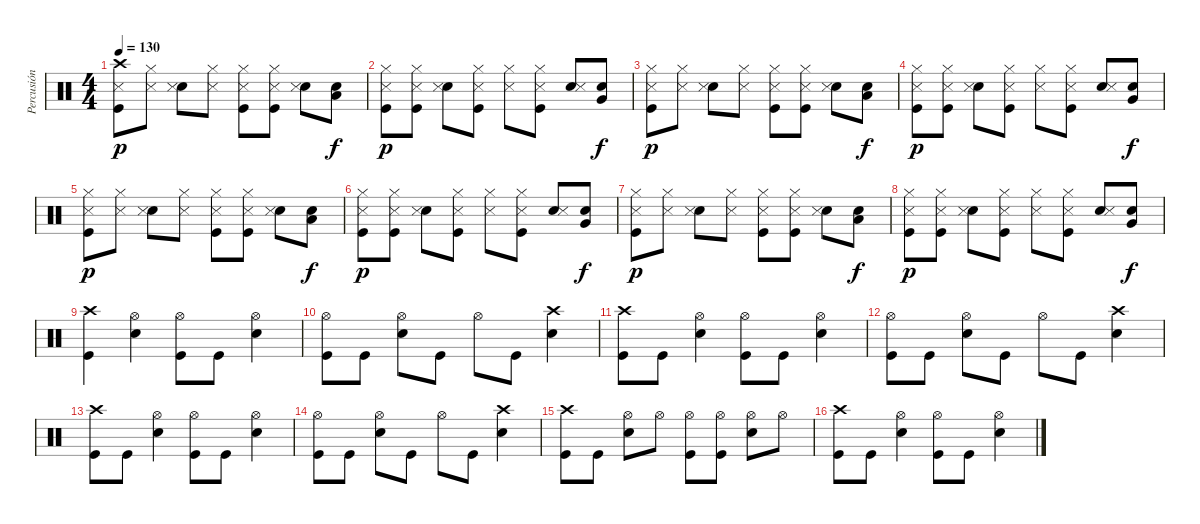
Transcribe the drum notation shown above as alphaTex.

\track ("Percusión" "Percusión") {instrument percussion}
\staff {score}
\articulation defaults
\ts (4 4)
\tempo 130
\clef neutral
\ks c
("Kick (hit)" "Snare (side stick) 3" "Crash high (hit)").8{dy p} ("Snare (side stick) 3" "Hi-Hat (closed)").8 ("Snare (hit) 2" "Snare (side stick) 3").8 ("Snare (side stick) 3" "Hi-Hat (closed)").8 ("Kick (hit)" "Snare (side stick) 3" "Hi-Hat (closed)").8 ("Kick (hit)" "Snare (side stick) 3" "Hi-Hat (closed)").8 ("Snare (hit) 2" "Snare (side stick) 3").8 ("Snare (hit) 2" "Low Tom (hit)").8{dy f} |
("Kick (hit)" "Snare (side stick) 3" "Hi-Hat (closed)").8{dy p} ("Kick (hit)" "Snare (side stick) 3" "Hi-Hat (closed)").8 ("Snare (hit) 2" "Snare (side stick) 3").8 ("Kick (hit)" "Snare (side stick) 3" "Hi-Hat (closed)").8 ("Snare (side stick) 3" "Hi-Hat (closed)").8 ("Kick (hit)" "Snare (side stick) 3" "Hi-Hat (closed)").8 ("Snare (hit) 2" "Snare (side stick) 3").8 ("Snare (hit) 2" "Very Low Tom (hit)").8{dy f} |
("Kick (hit)" "Snare (side stick) 3" "Hi-Hat (closed)").8{dy p} ("Snare (side stick) 3" "Hi-Hat (closed)").8 ("Snare (hit) 2" "Snare (side stick) 3").8 ("Snare (side stick) 3" "Hi-Hat (closed)").8 ("Kick (hit)" "Snare (side stick) 3" "Hi-Hat (closed)").8 ("Kick (hit)" "Snare (side stick) 3" "Hi-Hat (closed)").8 ("Snare (hit) 2" "Snare (side stick) 3").8 ("Snare (hit) 2" "Low Tom (hit)").8{dy f} |
("Kick (hit)" "Snare (side stick) 3" "Hi-Hat (closed)").8{dy p} ("Kick (hit)" "Snare (side stick) 3" "Hi-Hat (closed)").8 ("Snare (hit) 2" "Snare (side stick) 3").8 ("Kick (hit)" "Snare (side stick) 3" "Hi-Hat (closed)").8 ("Snare (side stick) 3" "Hi-Hat (closed)").8 ("Kick (hit)" "Snare (side stick) 3" "Hi-Hat (closed)").8 ("Snare (hit) 2" "Snare (side stick) 3").8 ("Snare (hit) 2" "Very Low Tom (hit)").8{dy f} |
("Kick (hit)" "Snare (side stick) 3" "Hi-Hat (closed)").8{dy p} ("Snare (side stick) 3" "Hi-Hat (closed)").8 ("Snare (hit) 2" "Snare (side stick) 3").8 ("Snare (side stick) 3" "Hi-Hat (closed)").8 ("Kick (hit)" "Snare (side stick) 3" "Hi-Hat (closed)").8 ("Kick (hit)" "Snare (side stick) 3" "Hi-Hat (closed)").8 ("Snare (hit) 2" "Snare (side stick) 3").8 ("Snare (hit) 2" "Low Tom (hit)").8{dy f} |
("Kick (hit)" "Snare (side stick) 3" "Hi-Hat (closed)").8{dy p} ("Kick (hit)" "Snare (side stick) 3" "Hi-Hat (closed)").8 ("Snare (hit) 2" "Snare (side stick) 3").8 ("Kick (hit)" "Snare (side stick) 3" "Hi-Hat (closed)").8 ("Snare (side stick) 3" "Hi-Hat (closed)").8 ("Kick (hit)" "Snare (side stick) 3" "Hi-Hat (closed)").8 ("Snare (hit) 2" "Snare (side stick) 3").8 ("Snare (hit) 2" "Very Low Tom (hit)").8{dy f} |
("Kick (hit)" "Snare (side stick) 3" "Hi-Hat (closed)").8{dy p} ("Snare (side stick) 3" "Hi-Hat (closed)").8 ("Snare (hit) 2" "Snare (side stick) 3").8 ("Snare (side stick) 3" "Hi-Hat (closed)").8 ("Kick (hit)" "Snare (side stick) 3" "Hi-Hat (closed)").8 ("Kick (hit)" "Snare (side stick) 3" "Hi-Hat (closed)").8 ("Snare (hit) 2" "Snare (side stick) 3").8 ("Snare (hit) 2" "Low Tom (hit)").8{dy f} |
("Kick (hit)" "Snare (side stick) 3" "Hi-Hat (closed)").8{dy p} ("Kick (hit)" "Snare (side stick) 3" "Hi-Hat (closed)").8 ("Snare (hit) 2" "Snare (side stick) 3").8 ("Kick (hit)" "Snare (side stick) 3" "Hi-Hat (closed)").8 ("Snare (side stick) 3" "Hi-Hat (closed)").8 ("Kick (hit)" "Snare (side stick) 3" "Hi-Hat (closed)").8 ("Snare (hit) 2" "Snare (side stick) 3").8 ("Snare (hit) 2" "Very Low Tom (hit)").8{dy f} |
("Kick (hit)" "Crash high (hit)").4 ("Snare (hit) 2" "Hi-Hat (open)").4 ("Kick (hit)" "Hi-Hat (open)").8 "Kick (hit)".8 ("Snare (hit) 2" "Hi-Hat (open)").4 |
("Kick (hit)" "Hi-Hat (open)").8 "Kick (hit)".8 ("Snare (hit) 2" "Hi-Hat (open)").8 "Kick (hit)".8 "Hi-Hat (open)".8 "Kick (hit)".8 ("Snare (hit) 2" "Crash high (hit)").4 |
("Kick (hit)" "Crash high (hit)").8 "Kick (hit)".8 ("Snare (hit) 2" "Hi-Hat (open)").4 ("Kick (hit)" "Hi-Hat (open)").8 "Kick (hit)".8 ("Snare (hit) 2" "Hi-Hat (open)").4 |
("Kick (hit)" "Hi-Hat (open)").8 "Kick (hit)".8 ("Snare (hit) 2" "Hi-Hat (open)").8 "Kick (hit)".8 "Hi-Hat (open)".8 "Kick (hit)".8 ("Snare (hit) 2" "Crash high (hit)").4 |
("Kick (hit)" "Crash high (hit)").8 "Kick (hit)".8 ("Snare (hit) 2" "Hi-Hat (open)").4 ("Kick (hit)" "Hi-Hat (open)").8 "Kick (hit)".8 ("Snare (hit) 2" "Hi-Hat (open)").4 |
("Kick (hit)" "Hi-Hat (open)").8 "Kick (hit)".8 ("Snare (hit) 2" "Hi-Hat (open)").8 "Kick (hit)".8 "Hi-Hat (open)".8 "Kick (hit)".8 ("Snare (hit) 2" "Crash high (hit)").4 |
("Kick (hit)" "Crash high (hit)").8 "Kick (hit)".8 ("Snare (hit) 2" "Hi-Hat (open)").8 "Hi-Hat (open)".8 ("Kick (hit)" "Hi-Hat (open)").8 ("Kick (hit)" "Hi-Hat (open)").8 ("Snare (hit) 2" "Hi-Hat (open)").8 "Hi-Hat (open)".8 |
("Kick (hit)" "Crash high (hit)").8 "Kick (hit)".8 ("Snare (hit) 2" "Hi-Hat (open)").4 ("Kick (hit)" "Hi-Hat (open)").8 "Kick (hit)".8 ("Snare (hit) 2" "Hi-Hat (open)").4
